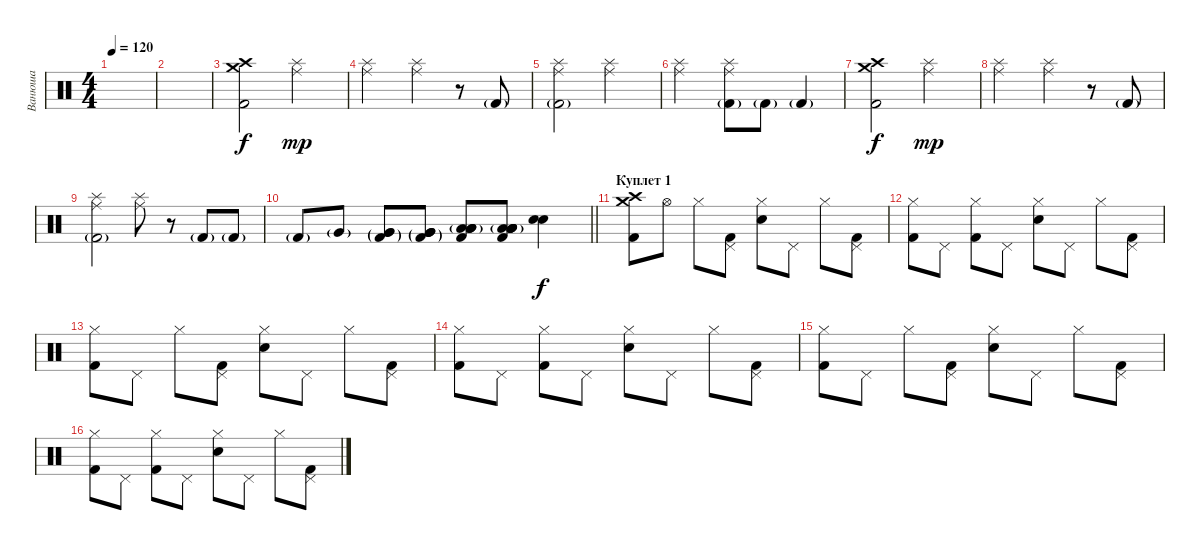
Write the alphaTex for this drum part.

\track ("Ванюша" "Ванюша") {instrument percussion}
\staff {score}
\articulation defaults
\ts (4 4)
\tempo 120
\clef neutral
\ks c
|
|
("Crash medium (hit)" "Crash high (hit)" "Kick (hit) 2").2 ("Ride (middle)" "Splash (hit)").2{dy mp} |
("Ride (middle)" "Splash (hit)").2 ("Ride (middle)" "Splash (hit)").4 r.8 "Kick (hit) 2"{g}.8 |
("Kick (hit) 2"{g} "Ride (middle)" "Splash (hit)").2 ("Ride (middle)" "Splash (hit)").2 |
("Ride (middle)" "Splash (hit)").2 ("Kick (hit) 2"{g} "Ride (middle)" "Splash (hit)").8 "Kick (hit) 2"{g}.8 "Kick (hit) 2"{g}.4 |
("Crash medium (hit)" "Crash high (hit)" "Kick (hit) 2").2{dy f} ("Ride (middle)" "Splash (hit)").2{dy mp} |
("Ride (middle)" "Splash (hit)").2 ("Ride (middle)" "Splash (hit)").4 r.8 "Kick (hit) 2"{g}.8 |
("Kick (hit) 2"{g} "Ride (middle)" "Splash (hit)").2 ("Ride (middle)" "Splash (hit)").8 r.8 "Kick (hit) 2"{g}.8 "Kick (hit) 2"{g}.8 |
\barLineRight lightlight "Kick (hit) 2"{g}.8 "Very Low Tom (hit)"{g}.8
("Very Low Tom (hit)" "Very Low Tom (hit)"{g} "Kick (hit) 2"{g}).8 ("Very Low Tom (hit)" "Very Low Tom (hit)"{g} "Very Low Tom (hit)"{g} "Kick (hit) 2"{g}).8 ("Low Tom (hit)" "Low Tom (hit)"{g} "Low Tom (hit)"{g} "Low Tom (hit)"{g} "Kick (hit) 2").8 ("Low Tom (hit)" "Low Tom (hit)"{g} "Low Tom (hit)"{g} "Low Tom (hit)"{g} "Low Tom (hit)"{g} "Kick (hit) 2").8 ("Snare (hit) 2" "Snare (hit) 2").4{dy f} |
\section ("" "Куплет 1")
("Crash medium (hit)" "Crash high (hit)" "Kick (hit) 2").8 "Hi-Hat (open)".8 "Hi-Hat (closed)".8 ("Pedal Hi-Hat (hit)" "Kick (hit) 2").8 ("Hi-Hat (closed)" "Snare (hit) 2").8 "Pedal Hi-Hat (hit)".8 "Hi-Hat (closed)".8 ("Pedal Hi-Hat (hit)" "Kick (hit) 2").8 |
("Hi-Hat (closed)" "Kick (hit) 2").8 "Pedal Hi-Hat (hit)".8 ("Hi-Hat (closed)" "Kick (hit) 2").8 "Pedal Hi-Hat (hit)".8 ("Hi-Hat (closed)" "Snare (hit) 2").8 "Pedal Hi-Hat (hit)".8 "Hi-Hat (closed)".8 ("Pedal Hi-Hat (hit)" "Kick (hit) 2").8 |
("Hi-Hat (closed)" "Kick (hit) 2").8 "Pedal Hi-Hat (hit)".8 "Hi-Hat (closed)".8 ("Pedal Hi-Hat (hit)" "Kick (hit) 2").8 ("Hi-Hat (closed)" "Snare (hit) 2").8 "Pedal Hi-Hat (hit)".8 "Hi-Hat (closed)".8 ("Pedal Hi-Hat (hit)" "Kick (hit) 2").8 |
("Hi-Hat (closed)" "Kick (hit) 2").8 "Pedal Hi-Hat (hit)".8 ("Hi-Hat (closed)" "Kick (hit) 2").8 "Pedal Hi-Hat (hit)".8 ("Hi-Hat (closed)" "Snare (hit) 2").8 "Pedal Hi-Hat (hit)".8 "Hi-Hat (closed)".8 ("Pedal Hi-Hat (hit)" "Kick (hit) 2").8 |
("Hi-Hat (closed)" "Kick (hit) 2").8 "Pedal Hi-Hat (hit)".8 "Hi-Hat (closed)".8 ("Pedal Hi-Hat (hit)" "Kick (hit) 2").8 ("Hi-Hat (closed)" "Snare (hit) 2").8 "Pedal Hi-Hat (hit)".8 "Hi-Hat (closed)".8 ("Pedal Hi-Hat (hit)" "Kick (hit) 2").8 |
("Hi-Hat (closed)" "Kick (hit) 2").8 "Pedal Hi-Hat (hit)".8 ("Hi-Hat (closed)" "Kick (hit) 2").8 "Pedal Hi-Hat (hit)".8 ("Hi-Hat (closed)" "Snare (hit) 2").8 "Pedal Hi-Hat (hit)".8 "Hi-Hat (closed)".8 ("Pedal Hi-Hat (hit)" "Kick (hit) 2").8
